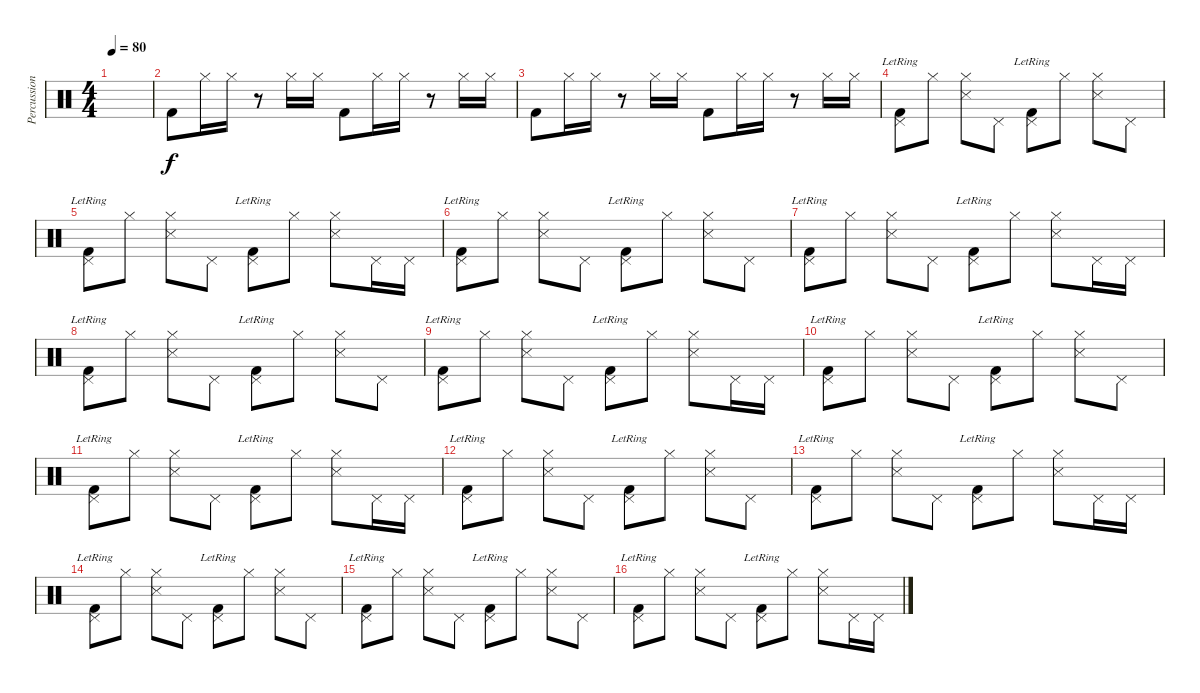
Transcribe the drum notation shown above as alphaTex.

\track ("Percussions / Batterie" "Percussion") {instrument percussion}
\staff {score}
\articulation defaults
\ts (4 4)
\tempo 80
\clef neutral
\ks c
|
"Kick (hit) 2".8 "Hi-Hat (closed)".16 "Hi-Hat (closed)".16 r.8 "Hi-Hat (closed)".16 "Hi-Hat (closed)".16 "Kick (hit) 2".8 "Hi-Hat (closed)".16 "Hi-Hat (closed)".16 r.8 "Hi-Hat (closed)".16 "Hi-Hat (closed)".16 |
"Kick (hit) 2".8 "Hi-Hat (closed)".16 "Hi-Hat (closed)".16 r.8 "Hi-Hat (closed)".16 "Hi-Hat (closed)".16 "Kick (hit) 2".8 "Hi-Hat (closed)".16 "Hi-Hat (closed)".16 r.8 "Hi-Hat (closed)".16 "Hi-Hat (closed)".16 |
("Pedal Hi-Hat (hit)" "Kick (hit) 2"{lr}).8 "Hi-Hat (closed)".8 ("Hi-Hat (closed)" "Snare (side stick) 3").8 "Pedal Hi-Hat (hit)".8 ("Pedal Hi-Hat (hit)" "Kick (hit) 2"{lr}).8 "Hi-Hat (closed)".8 ("Hi-Hat (closed)" "Snare (side stick) 3").8 "Pedal Hi-Hat (hit)".8 |
("Pedal Hi-Hat (hit)" "Kick (hit) 2"{lr}).8 "Hi-Hat (closed)".8 ("Hi-Hat (closed)" "Snare (side stick) 3").8 "Pedal Hi-Hat (hit)".8 ("Pedal Hi-Hat (hit)" "Kick (hit) 2"{lr}).8 "Hi-Hat (closed)".8 ("Hi-Hat (closed)" "Snare (side stick) 3").8 "Pedal Hi-Hat (hit)".16 "Pedal Hi-Hat (hit)".16 |
("Pedal Hi-Hat (hit)" "Kick (hit) 2"{lr}).8 "Hi-Hat (closed)".8 ("Hi-Hat (closed)" "Snare (side stick) 3").8 "Pedal Hi-Hat (hit)".8 ("Pedal Hi-Hat (hit)" "Kick (hit) 2"{lr}).8 "Hi-Hat (closed)".8 ("Hi-Hat (closed)" "Snare (side stick) 3").8 "Pedal Hi-Hat (hit)".8 |
("Pedal Hi-Hat (hit)" "Kick (hit) 2"{lr}).8 "Hi-Hat (closed)".8 ("Hi-Hat (closed)" "Snare (side stick) 3").8 "Pedal Hi-Hat (hit)".8 ("Pedal Hi-Hat (hit)" "Kick (hit) 2"{lr}).8 "Hi-Hat (closed)".8 ("Hi-Hat (closed)" "Snare (side stick) 3").8 "Pedal Hi-Hat (hit)".16 "Pedal Hi-Hat (hit)".16 |
("Pedal Hi-Hat (hit)" "Kick (hit) 2"{lr}).8 "Hi-Hat (closed)".8 ("Hi-Hat (closed)" "Snare (side stick) 3").8 "Pedal Hi-Hat (hit)".8 ("Pedal Hi-Hat (hit)" "Kick (hit) 2"{lr}).8 "Hi-Hat (closed)".8 ("Hi-Hat (closed)" "Snare (side stick) 3").8 "Pedal Hi-Hat (hit)".8 |
("Pedal Hi-Hat (hit)" "Kick (hit) 2"{lr}).8 "Hi-Hat (closed)".8 ("Hi-Hat (closed)" "Snare (side stick) 3").8 "Pedal Hi-Hat (hit)".8 ("Pedal Hi-Hat (hit)" "Kick (hit) 2"{lr}).8 "Hi-Hat (closed)".8 ("Hi-Hat (closed)" "Snare (side stick) 3").8 "Pedal Hi-Hat (hit)".16 "Pedal Hi-Hat (hit)".16 |
("Pedal Hi-Hat (hit)" "Kick (hit) 2"{lr}).8 "Hi-Hat (closed)".8 ("Hi-Hat (closed)" "Snare (side stick) 3").8 "Pedal Hi-Hat (hit)".8 ("Pedal Hi-Hat (hit)" "Kick (hit) 2"{lr}).8 "Hi-Hat (closed)".8 ("Hi-Hat (closed)" "Snare (side stick) 3").8 "Pedal Hi-Hat (hit)".8 |
("Pedal Hi-Hat (hit)" "Kick (hit) 2"{lr}).8 "Hi-Hat (closed)".8 ("Hi-Hat (closed)" "Snare (side stick) 3").8 "Pedal Hi-Hat (hit)".8 ("Pedal Hi-Hat (hit)" "Kick (hit) 2"{lr}).8 "Hi-Hat (closed)".8 ("Hi-Hat (closed)" "Snare (side stick) 3").8 "Pedal Hi-Hat (hit)".16 "Pedal Hi-Hat (hit)".16 |
("Pedal Hi-Hat (hit)" "Kick (hit) 2"{lr}).8 "Hi-Hat (closed)".8 ("Hi-Hat (closed)" "Snare (side stick) 3").8 "Pedal Hi-Hat (hit)".8 ("Pedal Hi-Hat (hit)" "Kick (hit) 2"{lr}).8 "Hi-Hat (closed)".8 ("Hi-Hat (closed)" "Snare (side stick) 3").8 "Pedal Hi-Hat (hit)".8 |
("Pedal Hi-Hat (hit)" "Kick (hit) 2"{lr}).8 "Hi-Hat (closed)".8 ("Hi-Hat (closed)" "Snare (side stick) 3").8 "Pedal Hi-Hat (hit)".8 ("Pedal Hi-Hat (hit)" "Kick (hit) 2"{lr}).8 "Hi-Hat (closed)".8 ("Hi-Hat (closed)" "Snare (side stick) 3").8 "Pedal Hi-Hat (hit)".16 "Pedal Hi-Hat (hit)".16 |
("Pedal Hi-Hat (hit)" "Kick (hit) 2"{lr}).8 "Hi-Hat (closed)".8 ("Hi-Hat (closed)" "Snare (side stick) 3").8 "Pedal Hi-Hat (hit)".8 ("Pedal Hi-Hat (hit)" "Kick (hit) 2"{lr}).8 "Hi-Hat (closed)".8 ("Hi-Hat (closed)" "Snare (side stick) 3").8 "Pedal Hi-Hat (hit)".8 |
("Pedal Hi-Hat (hit)" "Kick (hit) 2"{lr}).8 "Hi-Hat (closed)".8 ("Hi-Hat (closed)" "Snare (side stick) 3").8 "Pedal Hi-Hat (hit)".8 ("Pedal Hi-Hat (hit)" "Kick (hit) 2"{lr}).8 "Hi-Hat (closed)".8 ("Hi-Hat (closed)" "Snare (side stick) 3").8 "Pedal Hi-Hat (hit)".8 |
("Pedal Hi-Hat (hit)" "Kick (hit) 2"{lr}).8 "Hi-Hat (closed)".8 ("Hi-Hat (closed)" "Snare (side stick) 3").8 "Pedal Hi-Hat (hit)".8 ("Pedal Hi-Hat (hit)" "Kick (hit) 2"{lr}).8 "Hi-Hat (closed)".8 ("Hi-Hat (closed)" "Snare (side stick) 3").8 "Pedal Hi-Hat (hit)".16 "Pedal Hi-Hat (hit)".16
